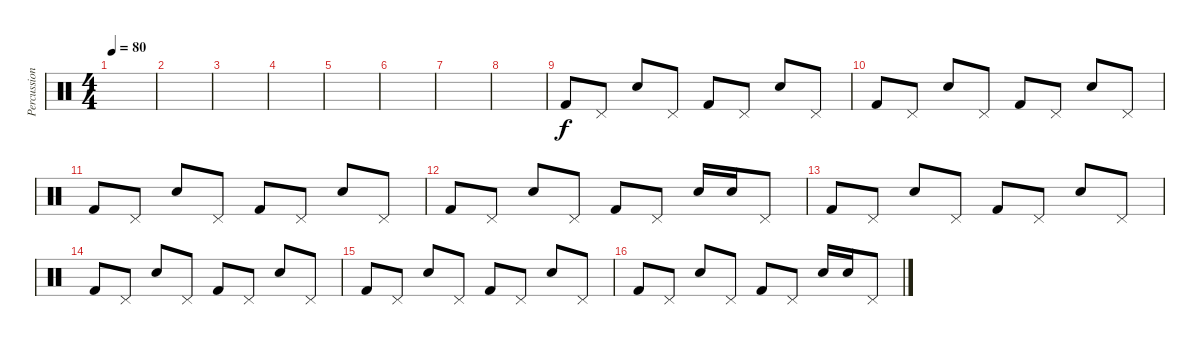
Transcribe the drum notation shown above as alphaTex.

\track ("Percussion" "Percussion") {instrument percussion}
\staff {score}
\articulation defaults
\ts (4 4)
\tempo 80
\clef neutral
\ks c
|
|
|
|
|
|
|
|
"Kick (hit) 2".8 "Pedal Hi-Hat (hit)".8 "Electric Snare (hit)".8 "Pedal Hi-Hat (hit)".8 "Kick (hit) 2".8 "Pedal Hi-Hat (hit)".8 "Electric Snare (hit)".8 "Pedal Hi-Hat (hit)".8 |
"Kick (hit) 2".8 "Pedal Hi-Hat (hit)".8 "Electric Snare (hit)".8 "Pedal Hi-Hat (hit)".8 "Kick (hit) 2".8 "Pedal Hi-Hat (hit)".8 "Electric Snare (hit)".8 "Pedal Hi-Hat (hit)".8 |
"Kick (hit) 2".8 "Pedal Hi-Hat (hit)".8 "Electric Snare (hit)".8 "Pedal Hi-Hat (hit)".8 "Kick (hit) 2".8 "Pedal Hi-Hat (hit)".8 "Electric Snare (hit)".8 "Pedal Hi-Hat (hit)".8 |
"Kick (hit) 2".8 "Pedal Hi-Hat (hit)".8 "Electric Snare (hit)".8 "Pedal Hi-Hat (hit)".8 "Kick (hit) 2".8 "Pedal Hi-Hat (hit)".8 "Electric Snare (hit)".16 "Electric Snare (hit)".16 "Pedal Hi-Hat (hit)".8 |
"Kick (hit) 2".8 "Pedal Hi-Hat (hit)".8 "Electric Snare (hit)".8 "Pedal Hi-Hat (hit)".8 "Kick (hit) 2".8 "Pedal Hi-Hat (hit)".8 "Electric Snare (hit)".8 "Pedal Hi-Hat (hit)".8 |
"Kick (hit) 2".8 "Pedal Hi-Hat (hit)".8 "Electric Snare (hit)".8 "Pedal Hi-Hat (hit)".8 "Kick (hit) 2".8 "Pedal Hi-Hat (hit)".8 "Electric Snare (hit)".8 "Pedal Hi-Hat (hit)".8 |
"Kick (hit) 2".8 "Pedal Hi-Hat (hit)".8 "Electric Snare (hit)".8 "Pedal Hi-Hat (hit)".8 "Kick (hit) 2".8 "Pedal Hi-Hat (hit)".8 "Electric Snare (hit)".8 "Pedal Hi-Hat (hit)".8 |
"Kick (hit) 2".8 "Pedal Hi-Hat (hit)".8 "Electric Snare (hit)".8 "Pedal Hi-Hat (hit)".8 "Kick (hit) 2".8 "Pedal Hi-Hat (hit)".8 "Electric Snare (hit)".16 "Electric Snare (hit)".16 "Pedal Hi-Hat (hit)".8
